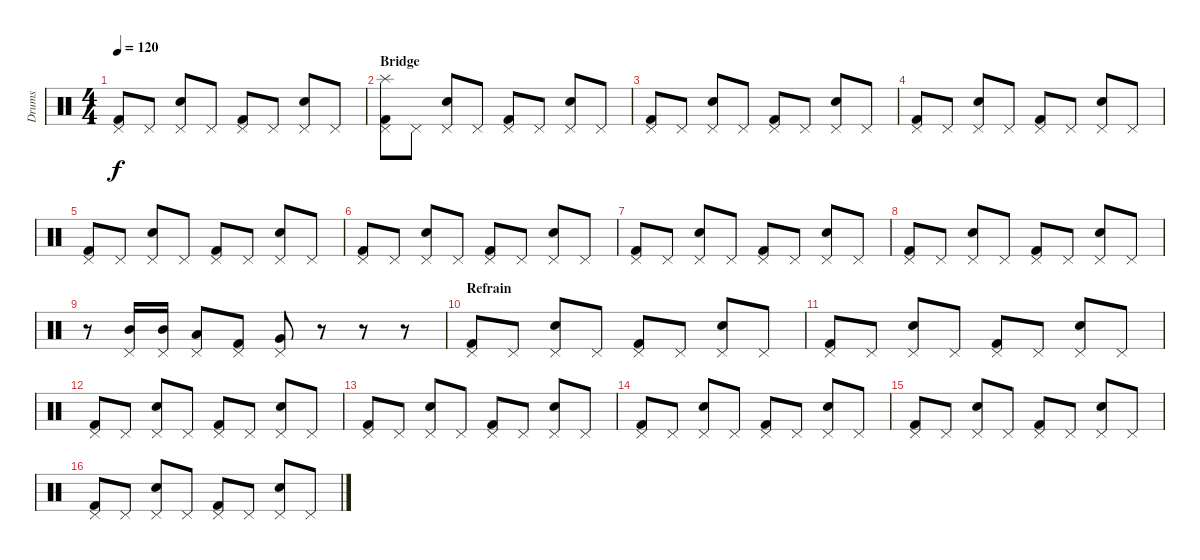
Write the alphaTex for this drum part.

\track ("Drums" "Drums") {instrument percussion}
\staff {score}
\articulation defaults
\ts (4 4)
\tempo 120
\clef neutral
\ks c
("Pedal Hi-Hat (hit)" "Kick (hit) 2").8{dy f} "Pedal Hi-Hat (hit)".8 ("Pedal Hi-Hat (hit)" "Snare (hit) 2").8 "Pedal Hi-Hat (hit)".8 ("Pedal Hi-Hat (hit)" "Kick (hit) 2").8 "Pedal Hi-Hat (hit)".8 ("Pedal Hi-Hat (hit)" "Snare (hit) 2").8 "Pedal Hi-Hat (hit)".8 |
\section ("" "Bridge")
("Splash (hit)" "Pedal Hi-Hat (hit)" "Kick (hit) 2").8 "Pedal Hi-Hat (hit)".8 ("Pedal Hi-Hat (hit)" "Snare (hit) 2").8 "Pedal Hi-Hat (hit)".8 ("Pedal Hi-Hat (hit)" "Kick (hit) 2").8 "Pedal Hi-Hat (hit)".8 ("Pedal Hi-Hat (hit)" "Snare (hit) 2").8 "Pedal Hi-Hat (hit)".8 |
("Pedal Hi-Hat (hit)" "Kick (hit) 2").8 "Pedal Hi-Hat (hit)".8 ("Pedal Hi-Hat (hit)" "Snare (hit) 2").8 "Pedal Hi-Hat (hit)".8 ("Pedal Hi-Hat (hit)" "Kick (hit) 2").8 "Pedal Hi-Hat (hit)".8 ("Pedal Hi-Hat (hit)" "Snare (hit) 2").8 "Pedal Hi-Hat (hit)".8 |
("Pedal Hi-Hat (hit)" "Kick (hit) 2").8 "Pedal Hi-Hat (hit)".8 ("Pedal Hi-Hat (hit)" "Snare (hit) 2").8 "Pedal Hi-Hat (hit)".8 ("Pedal Hi-Hat (hit)" "Kick (hit) 2").8 "Pedal Hi-Hat (hit)".8 ("Pedal Hi-Hat (hit)" "Snare (hit) 2").8 "Pedal Hi-Hat (hit)".8 |
("Pedal Hi-Hat (hit)" "Kick (hit) 2").8 "Pedal Hi-Hat (hit)".8 ("Pedal Hi-Hat (hit)" "Snare (hit) 2").8 "Pedal Hi-Hat (hit)".8 ("Pedal Hi-Hat (hit)" "Kick (hit) 2").8 "Pedal Hi-Hat (hit)".8 ("Pedal Hi-Hat (hit)" "Snare (hit) 2").8 "Pedal Hi-Hat (hit)".8 |
("Pedal Hi-Hat (hit)" "Kick (hit) 2").8 "Pedal Hi-Hat (hit)".8 ("Pedal Hi-Hat (hit)" "Snare (hit) 2").8 "Pedal Hi-Hat (hit)".8 ("Pedal Hi-Hat (hit)" "Kick (hit) 2").8 "Pedal Hi-Hat (hit)".8 ("Pedal Hi-Hat (hit)" "Snare (hit) 2").8 "Pedal Hi-Hat (hit)".8 |
("Pedal Hi-Hat (hit)" "Kick (hit) 2").8 "Pedal Hi-Hat (hit)".8 ("Pedal Hi-Hat (hit)" "Snare (hit) 2").8 "Pedal Hi-Hat (hit)".8 ("Pedal Hi-Hat (hit)" "Kick (hit) 2").8 "Pedal Hi-Hat (hit)".8 ("Pedal Hi-Hat (hit)" "Snare (hit) 2").8 "Pedal Hi-Hat (hit)".8 |
("Pedal Hi-Hat (hit)" "Kick (hit) 2").8 "Pedal Hi-Hat (hit)".8 ("Pedal Hi-Hat (hit)" "Snare (hit) 2").8 "Pedal Hi-Hat (hit)".8 ("Pedal Hi-Hat (hit)" "Kick (hit) 2").8 "Pedal Hi-Hat (hit)".8 ("Pedal Hi-Hat (hit)" "Snare (hit) 2").8 "Pedal Hi-Hat (hit)".8 |
r.8 ("Pedal Hi-Hat (hit)" "Mid Tom (hit)").16 ("Pedal Hi-Hat (hit)" "Mid Tom (hit)").16 ("Pedal Hi-Hat (hit)" "Low Tom (hit)").8 ("Pedal Hi-Hat (hit)" "Kick (hit) 2").8 ("Pedal Hi-Hat (hit)" "Very Low Tom (hit)").8 r.8 r.8 r.8 |
\section ("" "Refrain")
("Pedal Hi-Hat (hit)" "Kick (hit) 2").8 "Pedal Hi-Hat (hit)".8 ("Pedal Hi-Hat (hit)" "Snare (hit) 2").8 "Pedal Hi-Hat (hit)".8 ("Pedal Hi-Hat (hit)" "Kick (hit) 2").8 "Pedal Hi-Hat (hit)".8 ("Pedal Hi-Hat (hit)" "Snare (hit) 2").8 "Pedal Hi-Hat (hit)".8 |
("Pedal Hi-Hat (hit)" "Kick (hit) 2").8 "Pedal Hi-Hat (hit)".8 ("Pedal Hi-Hat (hit)" "Snare (hit) 2").8 "Pedal Hi-Hat (hit)".8 ("Pedal Hi-Hat (hit)" "Kick (hit) 2").8 "Pedal Hi-Hat (hit)".8 ("Pedal Hi-Hat (hit)" "Snare (hit) 2").8 "Pedal Hi-Hat (hit)".8 |
("Pedal Hi-Hat (hit)" "Kick (hit) 2").8 "Pedal Hi-Hat (hit)".8 ("Pedal Hi-Hat (hit)" "Snare (hit) 2").8 "Pedal Hi-Hat (hit)".8 ("Pedal Hi-Hat (hit)" "Kick (hit) 2").8 "Pedal Hi-Hat (hit)".8 ("Pedal Hi-Hat (hit)" "Snare (hit) 2").8 "Pedal Hi-Hat (hit)".8 |
("Pedal Hi-Hat (hit)" "Kick (hit) 2").8 "Pedal Hi-Hat (hit)".8 ("Pedal Hi-Hat (hit)" "Snare (hit) 2").8 "Pedal Hi-Hat (hit)".8 ("Pedal Hi-Hat (hit)" "Kick (hit) 2").8 "Pedal Hi-Hat (hit)".8 ("Pedal Hi-Hat (hit)" "Snare (hit) 2").8 "Pedal Hi-Hat (hit)".8 |
("Pedal Hi-Hat (hit)" "Kick (hit) 2").8 "Pedal Hi-Hat (hit)".8 ("Pedal Hi-Hat (hit)" "Snare (hit) 2").8 "Pedal Hi-Hat (hit)".8 ("Pedal Hi-Hat (hit)" "Kick (hit) 2").8 "Pedal Hi-Hat (hit)".8 ("Pedal Hi-Hat (hit)" "Snare (hit) 2").8 "Pedal Hi-Hat (hit)".8 |
("Pedal Hi-Hat (hit)" "Kick (hit) 2").8 "Pedal Hi-Hat (hit)".8 ("Pedal Hi-Hat (hit)" "Snare (hit) 2").8 "Pedal Hi-Hat (hit)".8 ("Pedal Hi-Hat (hit)" "Kick (hit) 2").8 "Pedal Hi-Hat (hit)".8 ("Pedal Hi-Hat (hit)" "Snare (hit) 2").8 "Pedal Hi-Hat (hit)".8 |
("Pedal Hi-Hat (hit)" "Kick (hit) 2").8 "Pedal Hi-Hat (hit)".8 ("Pedal Hi-Hat (hit)" "Snare (hit) 2").8 "Pedal Hi-Hat (hit)".8 ("Pedal Hi-Hat (hit)" "Kick (hit) 2").8 "Pedal Hi-Hat (hit)".8 ("Pedal Hi-Hat (hit)" "Snare (hit) 2").8 "Pedal Hi-Hat (hit)".8
